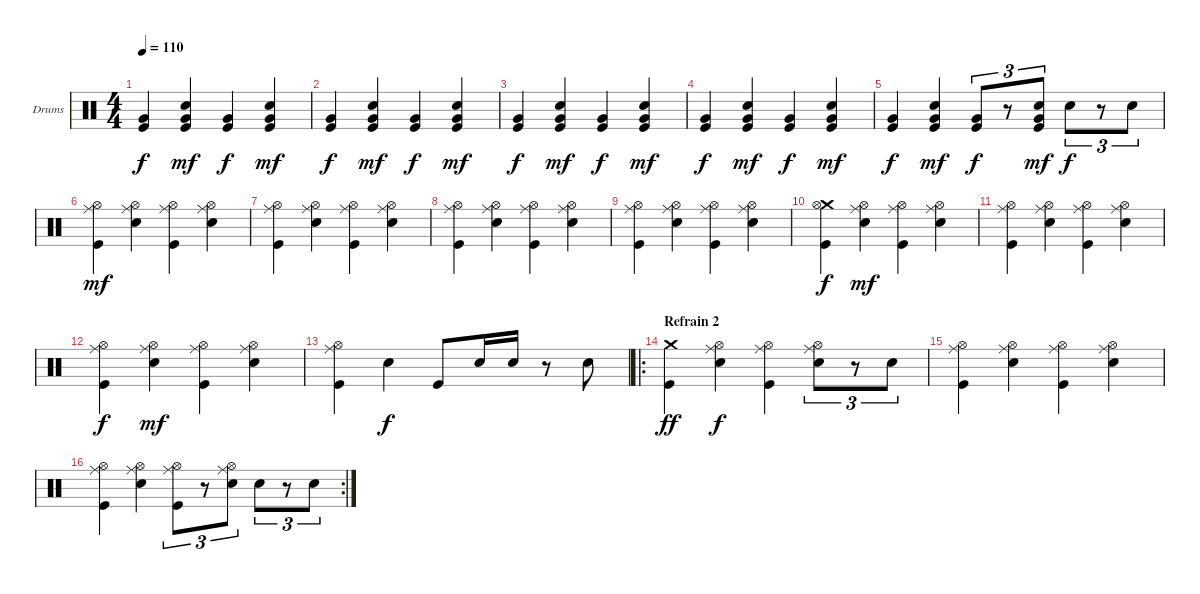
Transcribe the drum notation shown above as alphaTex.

\bracketExtendMode groupsimilarinstruments
\firstSystemTrackNameOrientation horizontal
\otherSystemsTrackNameOrientation horizontal
\chordDiagramsInScore
\track ("Drumkit" "Drums") {instrument percussion}
\staff {score}
\articulation defaults
\ts (4 4)
\tempo 110
\clef neutral
\ks c
("Kick (hit)" "Very Low Tom (hit)").4{dy f} ("Snare (hit) 2" "Kick (hit)" "Very Low Tom (hit)").4{dy mf} ("Kick (hit)" "Very Low Tom (hit)").4{dy f} ("Snare (hit) 2" "Kick (hit)" "Very Low Tom (hit)").4{dy mf} |
("Kick (hit)" "Very Low Tom (hit)").4{dy f} ("Snare (hit) 2" "Kick (hit)" "Very Low Tom (hit)").4{dy mf} ("Kick (hit)" "Very Low Tom (hit)").4{dy f} ("Snare (hit) 2" "Kick (hit)" "Very Low Tom (hit)").4{dy mf} |
("Kick (hit)" "Very Low Tom (hit)").4{dy f} ("Snare (hit) 2" "Kick (hit)" "Very Low Tom (hit)").4{dy mf} ("Kick (hit)" "Very Low Tom (hit)").4{dy f} ("Snare (hit) 2" "Kick (hit)" "Very Low Tom (hit)").4{dy mf} |
("Kick (hit)" "Very Low Tom (hit)").4{dy f} ("Snare (hit) 2" "Kick (hit)" "Very Low Tom (hit)").4{dy mf} ("Kick (hit)" "Very Low Tom (hit)").4{dy f} ("Snare (hit) 2" "Kick (hit)" "Very Low Tom (hit)").4{dy mf} |
("Kick (hit)" "Very Low Tom (hit)").4{dy f} ("Snare (hit) 2" "Kick (hit)" "Very Low Tom (hit)").4{dy mf} ("Kick (hit)" "Very Low Tom (hit)").8{tu (3 2) dy f} r.8{tu (3 2)} ("Snare (hit) 2" "Kick (hit)" "Very Low Tom (hit)").8{tu (3 2) dy mf} "Snare (hit) 2".8{tu (3 2) dy f} r.8{tu (3 2)} "Snare (hit) 2".8{tu (3 2)} |
("Ride (middle)" "Hi-Hat (open)" "Kick (hit)").4{dy mf} ("Ride (middle)" "Hi-Hat (open)" "Snare (hit) 2").4 ("Ride (middle)" "Hi-Hat (open)" "Kick (hit)").4 ("Ride (middle)" "Hi-Hat (open)" "Snare (hit) 2").4 |
("Ride (middle)" "Hi-Hat (open)" "Kick (hit)").4 ("Ride (middle)" "Hi-Hat (open)" "Snare (hit) 2").4 ("Ride (middle)" "Hi-Hat (open)" "Kick (hit)").4 ("Ride (middle)" "Hi-Hat (open)" "Snare (hit) 2").4 |
("Ride (middle)" "Hi-Hat (open)" "Kick (hit)").4 ("Ride (middle)" "Hi-Hat (open)" "Snare (hit) 2").4 ("Ride (middle)" "Hi-Hat (open)" "Kick (hit)").4 ("Ride (middle)" "Hi-Hat (open)" "Snare (hit) 2").4 |
("Ride (middle)" "Hi-Hat (open)" "Kick (hit)").4 ("Ride (middle)" "Hi-Hat (open)" "Snare (hit) 2").4 ("Ride (middle)" "Hi-Hat (open)" "Kick (hit)").4 ("Ride (middle)" "Hi-Hat (open)" "Snare (hit) 2").4 |
("Crash medium (hit)" "Hi-Hat (open)" "Kick (hit)").4{dy f} ("Ride (middle)" "Hi-Hat (open)" "Snare (hit) 2").4{dy mf} ("Ride (middle)" "Hi-Hat (open)" "Kick (hit)").4 ("Ride (middle)" "Hi-Hat (open)" "Snare (hit) 2").4 |
("Ride (middle)" "Hi-Hat (open)" "Kick (hit)").4 ("Ride (middle)" "Hi-Hat (open)" "Snare (hit) 2").4 ("Ride (middle)" "Hi-Hat (open)" "Kick (hit)").4 ("Ride (middle)" "Hi-Hat (open)" "Snare (hit) 2").4 |
("Ride (middle)" "Hi-Hat (open)" "Kick (hit)").4{dy f} ("Ride (middle)" "Hi-Hat (open)" "Snare (hit) 2").4{dy mf} ("Ride (middle)" "Hi-Hat (open)" "Kick (hit)").4 ("Ride (middle)" "Hi-Hat (open)" "Snare (hit) 2").4 |
("Ride (middle)" "Hi-Hat (open)" "Kick (hit)").4 "Snare (hit) 2".4{dy f} "Kick (hit)".8 "Snare (hit) 2".16 "Snare (hit) 2".16 r.8 "Snare (hit) 2".8 |
\ro
\section ("" "Refrain 2")
("Crash medium (hit)" "Kick (hit)").4{dy ff} ("Ride (middle)" "Hi-Hat (open)" "Snare (hit) 2").4{dy f} ("Ride (middle)" "Hi-Hat (open)" "Kick (hit)").4 ("Ride (middle)" "Hi-Hat (open)" "Snare (hit) 2").8{tu (3 2)} r.8{tu (3 2)} "Snare (hit) 2".8{tu (3 2)} |
("Ride (middle)" "Hi-Hat (open)" "Kick (hit)").4 ("Ride (middle)" "Hi-Hat (open)" "Snare (hit) 2").4 ("Ride (middle)" "Hi-Hat (open)" "Kick (hit)").4 ("Ride (middle)" "Hi-Hat (open)" "Snare (hit) 2").4 |
\rc 2
("Ride (middle)" "Hi-Hat (open)" "Kick (hit)").4 ("Ride (middle)" "Hi-Hat (open)" "Snare (hit) 2").4 ("Ride (middle)" "Hi-Hat (open)" "Kick (hit)").8{tu (3 2)} r.8{tu (3 2)} ("Ride (middle)" "Hi-Hat (open)" "Snare (hit) 2").8{tu (3 2)} "Snare (hit) 2".8{tu (3 2)} r.8{tu (3 2)} "Snare (hit) 2".8{tu (3 2)}
